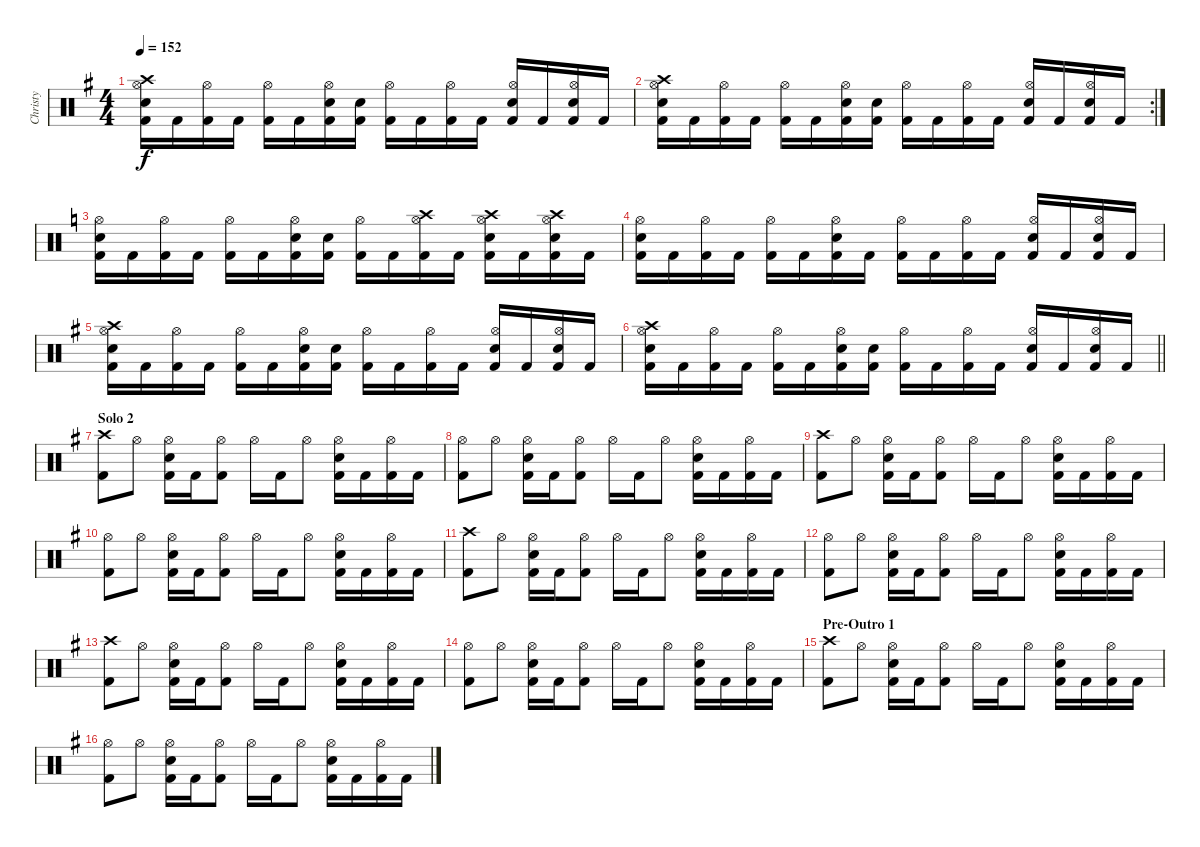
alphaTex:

\track ("Christy" "Christy") {instrument percussion}
\staff {score}
\articulation defaults
\ts (4 4)
\tempo 152
\clef neutral
\ks g
("Crash high (hit)" "Snare (hit) 2" "Hi-Hat (open)" "Kick (hit) 2").16{dy f} "Kick (hit) 2".16 ("Hi-Hat (open)" "Kick (hit) 2").16 "Kick (hit) 2".16 ("Hi-Hat (open)" "Kick (hit) 2").16 "Kick (hit) 2".16 ("Snare (hit) 2" "Hi-Hat (open)" "Kick (hit) 2").16 ("Snare (hit) 2" "Kick (hit) 2").16 ("Hi-Hat (open)" "Kick (hit) 2").16 "Kick (hit) 2".16 ("Hi-Hat (open)" "Kick (hit) 2").16 "Kick (hit) 2".16 ("Snare (hit) 2" "Hi-Hat (open)" "Kick (hit) 2").16 "Kick (hit) 2".16 ("Snare (hit) 2" "Hi-Hat (open)" "Kick (hit) 2").16 "Kick (hit) 2".16 |
\rc 2
("Crash high (hit)" "Snare (hit) 2" "Hi-Hat (open)" "Kick (hit) 2").16 "Kick (hit) 2".16 ("Hi-Hat (open)" "Kick (hit) 2").16 "Kick (hit) 2".16 ("Hi-Hat (open)" "Kick (hit) 2").16 "Kick (hit) 2".16 ("Snare (hit) 2" "Hi-Hat (open)" "Kick (hit) 2").16 ("Snare (hit) 2" "Kick (hit) 2").16 ("Hi-Hat (open)" "Kick (hit) 2").16 "Kick (hit) 2".16 ("Hi-Hat (open)" "Kick (hit) 2").16 "Kick (hit) 2".16 ("Snare (hit) 2" "Hi-Hat (open)" "Kick (hit) 2").16 "Kick (hit) 2".16 ("Snare (hit) 2" "Hi-Hat (open)" "Kick (hit) 2").16 "Kick (hit) 2".16 |
\ks c
("Snare (hit) 2" "Hi-Hat (open)" "Kick (hit) 2").16 "Kick (hit) 2".16 ("Hi-Hat (open)" "Kick (hit) 2").16 "Kick (hit) 2".16 ("Hi-Hat (open)" "Kick (hit) 2").16 "Kick (hit) 2".16 ("Snare (hit) 2" "Hi-Hat (open)" "Kick (hit) 2").16 ("Snare (hit) 2" "Kick (hit) 2").16 ("Hi-Hat (open)" "Kick (hit) 2").16 "Kick (hit) 2".16 ("Crash high (hit)" "Hi-Hat (open)" "Kick (hit) 2").16 "Kick (hit) 2".16 ("Crash high (hit)" "Snare (hit) 2" "Hi-Hat (open)" "Kick (hit) 2").16 "Kick (hit) 2".16 ("Crash high (hit)" "Snare (hit) 2" "Hi-Hat (open)" "Kick (hit) 2").16 "Kick (hit) 2".16 |
("Snare (hit) 2" "Hi-Hat (open)" "Kick (hit) 2").16 "Kick (hit) 2".16 ("Hi-Hat (open)" "Kick (hit) 2").16 "Kick (hit) 2".16 ("Hi-Hat (open)" "Kick (hit) 2").16 "Kick (hit) 2".16 ("Snare (hit) 2" "Hi-Hat (open)" "Kick (hit) 2").16 "Kick (hit) 2".16 ("Hi-Hat (open)" "Kick (hit) 2").16 "Kick (hit) 2".16 ("Hi-Hat (open)" "Kick (hit) 2").16 "Kick (hit) 2".16 ("Snare (hit) 2" "Hi-Hat (open)" "Kick (hit) 2").16 "Kick (hit) 2".16 ("Snare (hit) 2" "Hi-Hat (open)" "Kick (hit) 2").16 "Kick (hit) 2".16 |
\ks g
("Crash high (hit)" "Snare (hit) 2" "Hi-Hat (open)" "Kick (hit) 2").16 "Kick (hit) 2".16 ("Hi-Hat (open)" "Kick (hit) 2").16 "Kick (hit) 2".16 ("Hi-Hat (open)" "Kick (hit) 2").16 "Kick (hit) 2".16 ("Snare (hit) 2" "Hi-Hat (open)" "Kick (hit) 2").16 ("Snare (hit) 2" "Kick (hit) 2").16 ("Hi-Hat (open)" "Kick (hit) 2").16 "Kick (hit) 2".16 ("Hi-Hat (open)" "Kick (hit) 2").16 "Kick (hit) 2".16 ("Snare (hit) 2" "Hi-Hat (open)" "Kick (hit) 2").16 "Kick (hit) 2".16 ("Snare (hit) 2" "Hi-Hat (open)" "Kick (hit) 2").16 "Kick (hit) 2".16 |
\barLineRight lightlight
("Crash high (hit)" "Snare (hit) 2" "Hi-Hat (open)" "Kick (hit) 2").16 "Kick (hit) 2".16 ("Hi-Hat (open)" "Kick (hit) 2").16 "Kick (hit) 2".16 ("Hi-Hat (open)" "Kick (hit) 2").16 "Kick (hit) 2".16 ("Snare (hit) 2" "Hi-Hat (open)" "Kick (hit) 2").16 ("Snare (hit) 2" "Kick (hit) 2").16 ("Hi-Hat (open)" "Kick (hit) 2").16 "Kick (hit) 2".16 ("Hi-Hat (open)" "Kick (hit) 2").16 "Kick (hit) 2".16 ("Snare (hit) 2" "Hi-Hat (open)" "Kick (hit) 2").16 "Kick (hit) 2".16 ("Snare (hit) 2" "Hi-Hat (open)" "Kick (hit) 2").16 "Kick (hit) 2".16 |
\section ("" "Solo 2")
("Crash high (hit)" "Kick (hit) 2").8 "Hi-Hat (open)".8 ("Hi-Hat (open)" "Snare (hit) 2" "Kick (hit) 2").16 "Kick (hit) 2".16 ("Hi-Hat (open)" "Kick (hit) 2").8 "Hi-Hat (open)".16 "Kick (hit) 2".16 "Hi-Hat (open)".8 ("Hi-Hat (open)" "Snare (hit) 2" "Kick (hit) 2").16 "Kick (hit) 2".16 ("Hi-Hat (open)" "Kick (hit) 2").16 "Kick (hit) 2".16 |
("Hi-Hat (open)" "Kick (hit) 2").8 "Hi-Hat (open)".8 ("Hi-Hat (open)" "Snare (hit) 2" "Kick (hit) 2").16 "Kick (hit) 2".16 ("Hi-Hat (open)" "Kick (hit) 2").8 "Hi-Hat (open)".16 "Kick (hit) 2".16 "Hi-Hat (open)".8 ("Hi-Hat (open)" "Snare (hit) 2" "Kick (hit) 2").16 "Kick (hit) 2".16 ("Hi-Hat (open)" "Kick (hit) 2").16 "Kick (hit) 2".16 |
("Crash high (hit)" "Kick (hit) 2").8 "Hi-Hat (open)".8 ("Hi-Hat (open)" "Snare (hit) 2" "Kick (hit) 2").16 "Kick (hit) 2".16 ("Hi-Hat (open)" "Kick (hit) 2").8 "Hi-Hat (open)".16 "Kick (hit) 2".16 "Hi-Hat (open)".8 ("Hi-Hat (open)" "Snare (hit) 2" "Kick (hit) 2").16 "Kick (hit) 2".16 ("Hi-Hat (open)" "Kick (hit) 2").16 "Kick (hit) 2".16 |
("Hi-Hat (open)" "Kick (hit) 2").8 "Hi-Hat (open)".8 ("Hi-Hat (open)" "Snare (hit) 2" "Kick (hit) 2").16 "Kick (hit) 2".16 ("Hi-Hat (open)" "Kick (hit) 2").8 "Hi-Hat (open)".16 "Kick (hit) 2".16 "Hi-Hat (open)".8 ("Hi-Hat (open)" "Snare (hit) 2" "Kick (hit) 2").16 "Kick (hit) 2".16 ("Hi-Hat (open)" "Kick (hit) 2").16 "Kick (hit) 2".16 |
("Crash high (hit)" "Kick (hit) 2").8 "Hi-Hat (open)".8 ("Hi-Hat (open)" "Snare (hit) 2" "Kick (hit) 2").16 "Kick (hit) 2".16 ("Hi-Hat (open)" "Kick (hit) 2").8 "Hi-Hat (open)".16 "Kick (hit) 2".16 "Hi-Hat (open)".8 ("Hi-Hat (open)" "Snare (hit) 2" "Kick (hit) 2").16 "Kick (hit) 2".16 ("Hi-Hat (open)" "Kick (hit) 2").16 "Kick (hit) 2".16 |
("Hi-Hat (open)" "Kick (hit) 2").8 "Hi-Hat (open)".8 ("Hi-Hat (open)" "Snare (hit) 2" "Kick (hit) 2").16 "Kick (hit) 2".16 ("Hi-Hat (open)" "Kick (hit) 2").8 "Hi-Hat (open)".16 "Kick (hit) 2".16 "Hi-Hat (open)".8 ("Hi-Hat (open)" "Snare (hit) 2" "Kick (hit) 2").16 "Kick (hit) 2".16 ("Hi-Hat (open)" "Kick (hit) 2").16 "Kick (hit) 2".16 |
("Crash high (hit)" "Kick (hit) 2").8 "Hi-Hat (open)".8 ("Hi-Hat (open)" "Snare (hit) 2" "Kick (hit) 2").16 "Kick (hit) 2".16 ("Hi-Hat (open)" "Kick (hit) 2").8 "Hi-Hat (open)".16 "Kick (hit) 2".16 "Hi-Hat (open)".8 ("Hi-Hat (open)" "Snare (hit) 2" "Kick (hit) 2").16 "Kick (hit) 2".16 ("Hi-Hat (open)" "Kick (hit) 2").16 "Kick (hit) 2".16 |
("Hi-Hat (open)" "Kick (hit) 2").8 "Hi-Hat (open)".8 ("Hi-Hat (open)" "Snare (hit) 2" "Kick (hit) 2").16 "Kick (hit) 2".16 ("Hi-Hat (open)" "Kick (hit) 2").8 "Hi-Hat (open)".16 "Kick (hit) 2".16 "Hi-Hat (open)".8 ("Hi-Hat (open)" "Snare (hit) 2" "Kick (hit) 2").16 "Kick (hit) 2".16 ("Hi-Hat (open)" "Kick (hit) 2").16 "Kick (hit) 2".16 |
\section ("" "Pre-Outro 1")
("Crash high (hit)" "Kick (hit) 2").8 "Hi-Hat (open)".8 ("Hi-Hat (open)" "Snare (hit) 2" "Kick (hit) 2").16 "Kick (hit) 2".16 ("Hi-Hat (open)" "Kick (hit) 2").8 "Hi-Hat (open)".16 "Kick (hit) 2".16 "Hi-Hat (open)".8 ("Hi-Hat (open)" "Snare (hit) 2" "Kick (hit) 2").16 "Kick (hit) 2".16 ("Hi-Hat (open)" "Kick (hit) 2").16 "Kick (hit) 2".16 |
("Hi-Hat (open)" "Kick (hit) 2").8 "Hi-Hat (open)".8 ("Hi-Hat (open)" "Snare (hit) 2" "Kick (hit) 2").16 "Kick (hit) 2".16 ("Hi-Hat (open)" "Kick (hit) 2").8 "Hi-Hat (open)".16 "Kick (hit) 2".16 "Hi-Hat (open)".8 ("Hi-Hat (open)" "Snare (hit) 2" "Kick (hit) 2").16 "Kick (hit) 2".16 ("Hi-Hat (open)" "Kick (hit) 2").16 "Kick (hit) 2".16
